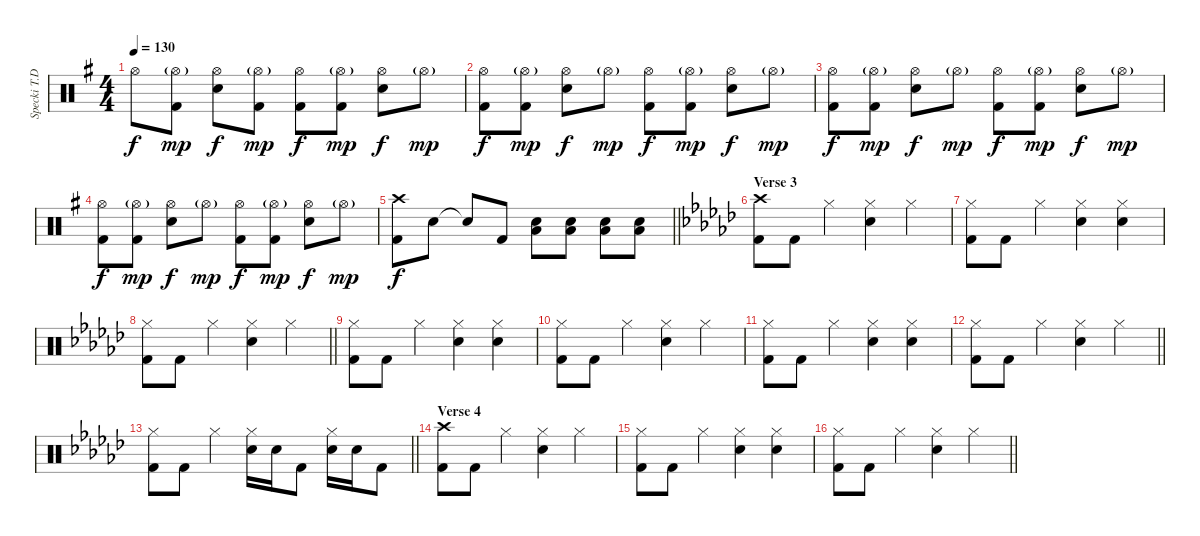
\track ("Specki T.D. (Drums)" "Specki T.D") {instrument percussion}
\staff {score}
\articulation defaults
\ts (4 4)
\tempo 130
\clef neutral
\ks g "Hi-Hat (open)".8{dy f}
("Hi-Hat (open)"{g} "Kick (hit) 2").8{dy mp} ("Hi-Hat (open)" "Snare (hit) 2").8{dy f} ("Hi-Hat (open)"{g} "Kick (hit) 2").8{dy mp} ("Hi-Hat (open)" "Kick (hit) 2").8{dy f} ("Hi-Hat (open)"{g} "Kick (hit) 2").8{dy mp} ("Hi-Hat (open)" "Snare (hit) 2").8{dy f} "Hi-Hat (open)"{g}.8{dy mp} |
("Hi-Hat (open)" "Kick (hit) 2").8{dy f} ("Hi-Hat (open)"{g} "Kick (hit) 2").8{dy mp} ("Hi-Hat (open)" "Snare (hit) 2").8{dy f} "Hi-Hat (open)"{g}.8{dy mp} ("Hi-Hat (open)" "Kick (hit) 2").8{dy f} ("Hi-Hat (open)"{g} "Kick (hit) 2").8{dy mp} ("Hi-Hat (open)" "Snare (hit) 2").8{dy f} "Hi-Hat (open)"{g}.8{dy mp} |
("Hi-Hat (open)" "Kick (hit) 2").8{dy f} ("Hi-Hat (open)"{g} "Kick (hit) 2").8{dy mp} ("Hi-Hat (open)" "Snare (hit) 2").8{dy f} "Hi-Hat (open)"{g}.8{dy mp} ("Hi-Hat (open)" "Kick (hit) 2").8{dy f} ("Hi-Hat (open)"{g} "Kick (hit) 2").8{dy mp} ("Hi-Hat (open)" "Snare (hit) 2").8{dy f} "Hi-Hat (open)"{g}.8{dy mp} |
("Hi-Hat (open)" "Kick (hit) 2").8{dy f} ("Hi-Hat (open)"{g} "Kick (hit) 2").8{dy mp} ("Hi-Hat (open)" "Snare (hit) 2").8{dy f} "Hi-Hat (open)"{g}.8{dy mp} ("Hi-Hat (open)" "Kick (hit) 2").8{dy f} ("Hi-Hat (open)"{g} "Kick (hit) 2").8{dy mp} ("Hi-Hat (open)" "Snare (hit) 2").8{dy f} "Hi-Hat (open)"{g}.8{dy mp} |
\barLineRight lightlight
("Crash high (hit)" "Kick (hit) 2").8{dy f} "Snare (hit) 2".8 "Snare (hit)"{t}.8 "Kick (hit) 2".8 ("Snare (hit) 2" "Low Tom (hit)").8 ("Snare (hit) 2" "Low Tom (hit)").8 ("Snare (hit) 2" "Low Floor Tom (hit)").8 ("Snare (hit) 2" "Low Floor Tom (hit)").8 |
\section ("" "Verse 3")
\ks ebminor
("Crash high (hit)" "Kick (hit) 2").8 "Kick (hit) 2".8 "Hi-Hat (closed)".4 ("Hi-Hat (closed)" "Snare (hit) 2").4 "Hi-Hat (closed)".4 |
("Hi-Hat (closed)" "Kick (hit) 2").8 "Kick (hit) 2".8 "Hi-Hat (closed)".4 ("Hi-Hat (closed)" "Snare (hit) 2").4 ("Hi-Hat (closed)" "Snare (hit) 2").4 |
\barLineRight lightlight
("Hi-Hat (closed)" "Kick (hit) 2").8 "Kick (hit) 2".8 "Hi-Hat (closed)".4 ("Hi-Hat (closed)" "Snare (hit) 2").4 "Hi-Hat (closed)".4 |
("Hi-Hat (closed)" "Kick (hit) 2").8 "Kick (hit) 2".8 "Hi-Hat (closed)".4 ("Hi-Hat (closed)" "Snare (hit) 2").4 ("Hi-Hat (closed)" "Snare (hit) 2").4 |
("Hi-Hat (closed)" "Kick (hit) 2").8 "Kick (hit) 2".8 "Hi-Hat (closed)".4 ("Hi-Hat (closed)" "Snare (hit) 2").4 "Hi-Hat (closed)".4 |
("Hi-Hat (closed)" "Kick (hit) 2").8 "Kick (hit) 2".8 "Hi-Hat (closed)".4 ("Hi-Hat (closed)" "Snare (hit) 2").4 ("Hi-Hat (closed)" "Snare (hit) 2").4 |
\barLineRight lightlight
("Hi-Hat (closed)" "Kick (hit) 2").8 "Kick (hit) 2".8 "Hi-Hat (closed)".4 ("Hi-Hat (closed)" "Snare (hit) 2").4 "Hi-Hat (closed)".4 |
\barLineRight lightlight
("Hi-Hat (closed)" "Kick (hit) 2").8 "Kick (hit) 2".8 "Hi-Hat (closed)".4 ("Hi-Hat (closed)" "Snare (hit) 2").16 "Snare (hit) 2".16 "Kick (hit) 2".8 ("Hi-Hat (closed)" "Snare (hit) 2").16 "Snare (hit) 2".16 "Kick (hit) 2".8 |
\section ("" "Verse 4")
("Crash high (hit)" "Kick (hit) 2").8 "Kick (hit) 2".8 "Hi-Hat (closed)".4 ("Hi-Hat (closed)" "Snare (hit) 2").4 "Hi-Hat (closed)".4 |
("Hi-Hat (closed)" "Kick (hit) 2").8 "Kick (hit) 2".8 "Hi-Hat (closed)".4 ("Hi-Hat (closed)" "Snare (hit) 2").4 ("Hi-Hat (closed)" "Snare (hit) 2").4 |
\barLineRight lightlight
("Hi-Hat (closed)" "Kick (hit) 2").8 "Kick (hit) 2".8 "Hi-Hat (closed)".4 ("Hi-Hat (closed)" "Snare (hit) 2").4 "Hi-Hat (closed)".4
